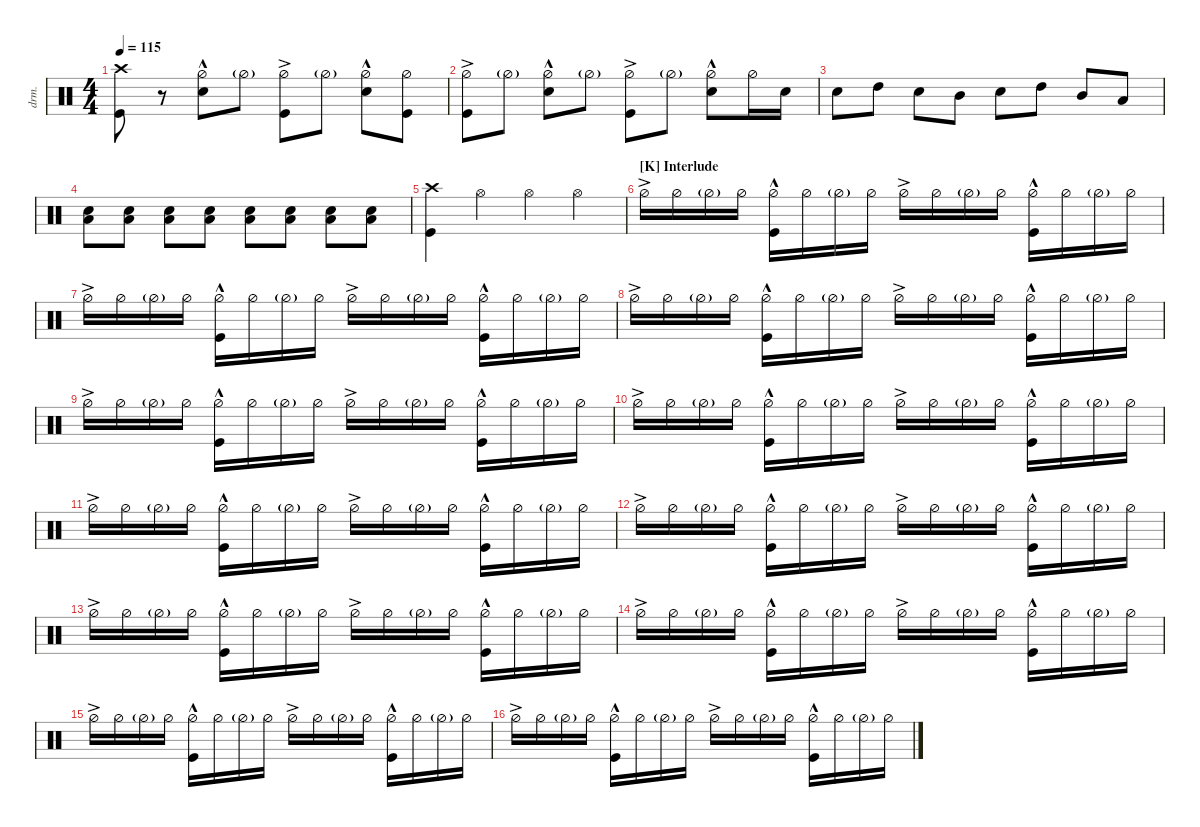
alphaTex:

\defaultSystemsLayout 4
\hideDynamics
\bracketExtendMode nobrackets
\otherSystemsTrackNameOrientation horizontal
\track ("Drums" "drm.") {multiBarRest instrument percussion}
\staff
\articulation defaults
\ts (4 4)
\tempo 115
\clef neutral
\ks c
("Kick (hit)" "Crash high (hit)").8{dy f} r.8 ("Hi-Hat (half)"{hac} "Snare (hit) 2").8 "Hi-Hat (half)"{g}.8 ("Kick (hit)" "Hi-Hat (half)"{ac}).8 "Hi-Hat (half)"{g}.8 ("Hi-Hat (half)"{hac} "Snare (hit) 2").8 ("Hi-Hat (half)" "Kick (hit)").8 |
("Kick (hit)" "Hi-Hat (half)"{ac}).8 "Hi-Hat (half)"{g}.8 ("Hi-Hat (half)"{hac} "Snare (hit) 2").8 "Hi-Hat (half)"{g}.8 ("Kick (hit)" "Hi-Hat (half)"{ac}).8 "Hi-Hat (half)"{g}.8 ("Hi-Hat (half)"{hac} "Snare (hit) 2").8 "Hi-Hat (half)".16 "Snare (hit) 2".16{dy mp} |
"Snare (hit) 2".8{dy f} "High Tom (hit)".8{dy ff} "Snare (hit) 2".8{dy f} "Mid Tom (hit)".8{dy ff} "Snare (hit) 2".8{dy f} "High Tom (hit)".8{dy ff} "Mid Tom (hit)".8 "Low Tom (hit)".8 |
("Snare (hit) 2" "Low Tom (hit)").8{dy mp} ("Snare (hit) 2" "Low Tom (hit)").8 ("Snare (hit) 2" "Low Tom (hit)").8{dy mf} ("Snare (hit) 2" "Low Tom (hit)").8 ("Snare (hit) 2" "Low Tom (hit)").8{dy f} ("Snare (hit) 2" "Low Tom (hit)").8 ("Snare (hit) 2" "Low Tom (hit)").8 ("Snare (hit) 2" "Low Tom (hit)").8 |
("Kick (hit)" "Crash high (hit)").4 "Hi-Hat (open)".4 "Hi-Hat (open)".4 "Hi-Hat (open)".4 |
\section ("K" "Interlude")
"Hi-Hat (half)"{ac}.16{dy mp} "Hi-Hat (half)".16 "Hi-Hat (half)"{g}.16 "Hi-Hat (half)".16 ("Hi-Hat (half)"{hac} "Kick (hit)").16 "Hi-Hat (half)".16 "Hi-Hat (half)"{g}.16 "Hi-Hat (half)".16 "Hi-Hat (half)"{ac}.16 "Hi-Hat (half)".16 "Hi-Hat (half)"{g}.16 "Hi-Hat (half)".16 ("Hi-Hat (half)"{hac} "Kick (hit)").16 "Hi-Hat (half)".16 "Hi-Hat (half)"{g}.16 "Hi-Hat (half)".16 |
"Hi-Hat (half)"{ac}.16 "Hi-Hat (half)".16 "Hi-Hat (half)"{g}.16 "Hi-Hat (half)".16 ("Hi-Hat (half)"{hac} "Kick (hit)").16 "Hi-Hat (half)".16 "Hi-Hat (half)"{g}.16 "Hi-Hat (half)".16 "Hi-Hat (half)"{ac}.16 "Hi-Hat (half)".16 "Hi-Hat (half)"{g}.16 "Hi-Hat (half)".16 ("Hi-Hat (half)"{hac} "Kick (hit)").16 "Hi-Hat (half)".16 "Hi-Hat (half)"{g}.16 "Hi-Hat (half)".16 |
"Hi-Hat (half)"{ac}.16 "Hi-Hat (half)".16 "Hi-Hat (half)"{g}.16 "Hi-Hat (half)".16 ("Hi-Hat (half)"{hac} "Kick (hit)").16 "Hi-Hat (half)".16 "Hi-Hat (half)"{g}.16 "Hi-Hat (half)".16 "Hi-Hat (half)"{ac}.16 "Hi-Hat (half)".16 "Hi-Hat (half)"{g}.16 "Hi-Hat (half)".16 ("Hi-Hat (half)"{hac} "Kick (hit)").16 "Hi-Hat (half)".16 "Hi-Hat (half)"{g}.16 "Hi-Hat (half)".16 |
"Hi-Hat (half)"{ac}.16 "Hi-Hat (half)".16 "Hi-Hat (half)"{g}.16 "Hi-Hat (half)".16 ("Hi-Hat (half)"{hac} "Kick (hit)").16 "Hi-Hat (half)".16 "Hi-Hat (half)"{g}.16 "Hi-Hat (half)".16 "Hi-Hat (half)"{ac}.16 "Hi-Hat (half)".16 "Hi-Hat (half)"{g}.16 "Hi-Hat (half)".16 ("Hi-Hat (half)"{hac} "Kick (hit)").16 "Hi-Hat (half)".16 "Hi-Hat (half)"{g}.16 "Hi-Hat (half)".16 |
"Hi-Hat (half)"{ac}.16 "Hi-Hat (half)".16 "Hi-Hat (half)"{g}.16 "Hi-Hat (half)".16 ("Hi-Hat (half)"{hac} "Kick (hit)").16 "Hi-Hat (half)".16 "Hi-Hat (half)"{g}.16 "Hi-Hat (half)".16 "Hi-Hat (half)"{ac}.16 "Hi-Hat (half)".16 "Hi-Hat (half)"{g}.16 "Hi-Hat (half)".16 ("Hi-Hat (half)"{hac} "Kick (hit)").16 "Hi-Hat (half)".16 "Hi-Hat (half)"{g}.16 "Hi-Hat (half)".16 |
"Hi-Hat (half)"{ac}.16 "Hi-Hat (half)".16 "Hi-Hat (half)"{g}.16 "Hi-Hat (half)".16 ("Hi-Hat (half)"{hac} "Kick (hit)").16 "Hi-Hat (half)".16 "Hi-Hat (half)"{g}.16 "Hi-Hat (half)".16 "Hi-Hat (half)"{ac}.16 "Hi-Hat (half)".16 "Hi-Hat (half)"{g}.16 "Hi-Hat (half)".16 ("Hi-Hat (half)"{hac} "Kick (hit)").16 "Hi-Hat (half)".16 "Hi-Hat (half)"{g}.16 "Hi-Hat (half)".16 |
"Hi-Hat (half)"{ac}.16 "Hi-Hat (half)".16 "Hi-Hat (half)"{g}.16 "Hi-Hat (half)".16 ("Hi-Hat (half)"{hac} "Kick (hit)").16 "Hi-Hat (half)".16 "Hi-Hat (half)"{g}.16 "Hi-Hat (half)".16 "Hi-Hat (half)"{ac}.16 "Hi-Hat (half)".16 "Hi-Hat (half)"{g}.16 "Hi-Hat (half)".16 ("Hi-Hat (half)"{hac} "Kick (hit)").16 "Hi-Hat (half)".16 "Hi-Hat (half)"{g}.16 "Hi-Hat (half)".16 |
"Hi-Hat (half)"{ac}.16 "Hi-Hat (half)".16 "Hi-Hat (half)"{g}.16 "Hi-Hat (half)".16 ("Hi-Hat (half)"{hac} "Kick (hit)").16 "Hi-Hat (half)".16 "Hi-Hat (half)"{g}.16 "Hi-Hat (half)".16 "Hi-Hat (half)"{ac}.16 "Hi-Hat (half)".16 "Hi-Hat (half)"{g}.16 "Hi-Hat (half)".16 ("Hi-Hat (half)"{hac} "Kick (hit)").16 "Hi-Hat (half)".16 "Hi-Hat (half)"{g}.16 "Hi-Hat (half)".16 |
"Hi-Hat (half)"{ac}.16 "Hi-Hat (half)".16 "Hi-Hat (half)"{g}.16 "Hi-Hat (half)".16 ("Hi-Hat (half)"{hac} "Kick (hit)").16 "Hi-Hat (half)".16 "Hi-Hat (half)"{g}.16 "Hi-Hat (half)".16 "Hi-Hat (half)"{ac}.16 "Hi-Hat (half)".16 "Hi-Hat (half)"{g}.16 "Hi-Hat (half)".16 ("Hi-Hat (half)"{hac} "Kick (hit)").16 "Hi-Hat (half)".16 "Hi-Hat (half)"{g}.16 "Hi-Hat (half)".16 |
"Hi-Hat (half)"{ac}.16 "Hi-Hat (half)".16 "Hi-Hat (half)"{g}.16 "Hi-Hat (half)".16 ("Hi-Hat (half)"{hac} "Kick (hit)").16 "Hi-Hat (half)".16 "Hi-Hat (half)"{g}.16 "Hi-Hat (half)".16 "Hi-Hat (half)"{ac}.16 "Hi-Hat (half)".16 "Hi-Hat (half)"{g}.16 "Hi-Hat (half)".16 ("Hi-Hat (half)"{hac} "Kick (hit)").16 "Hi-Hat (half)".16 "Hi-Hat (half)"{g}.16 "Hi-Hat (half)".16 |
"Hi-Hat (half)"{ac}.16 "Hi-Hat (half)".16 "Hi-Hat (half)"{g}.16 "Hi-Hat (half)".16 ("Hi-Hat (half)"{hac} "Kick (hit)").16 "Hi-Hat (half)".16 "Hi-Hat (half)"{g}.16 "Hi-Hat (half)".16 "Hi-Hat (half)"{ac}.16 "Hi-Hat (half)".16 "Hi-Hat (half)"{g}.16 "Hi-Hat (half)".16 ("Hi-Hat (half)"{hac} "Kick (hit)").16 "Hi-Hat (half)".16 "Hi-Hat (half)"{g}.16 "Hi-Hat (half)".16
